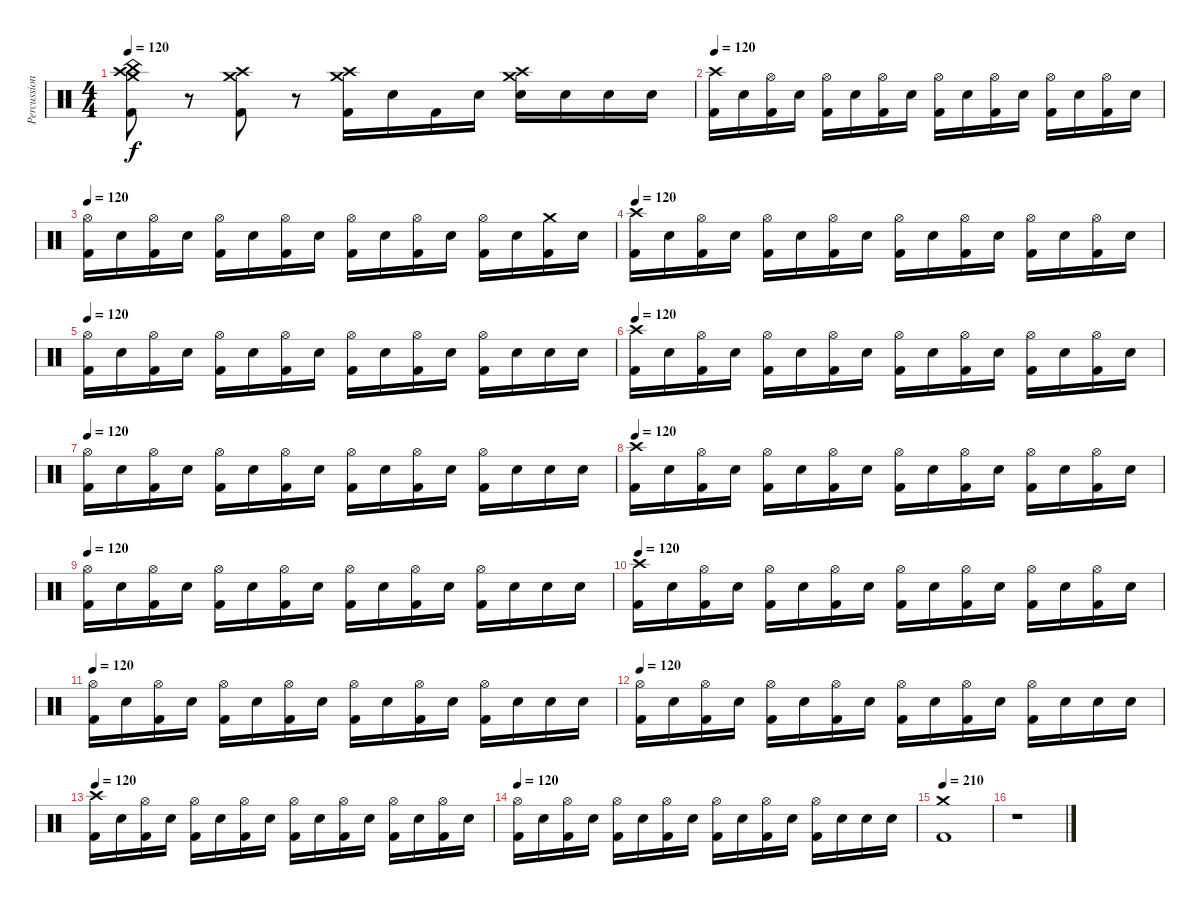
\track ("Percussion" "Percussion") {instrument percussion}
\staff {score}
\articulation defaults
\ts (4 4)
\tempo 120
\clef neutral
\ks c
("Crash high (hit)" "Crash medium (hit)" "China (hit)" "Kick (hit) 2").8{dy f} r.8 ("Crash high (hit)" "Crash medium (hit)" "Kick (hit) 2").8 r.8 ("Crash high (hit)" "Crash medium (hit)" "Kick (hit) 2").16 "Electric Snare (hit)".16 "Kick (hit) 2".16 "Electric Snare (hit)".16 ("Crash high (hit)" "Crash medium (hit)" "Electric Snare (hit)").16 "Electric Snare (hit)".16 "Electric Snare (hit)".16 "Electric Snare (hit)".16 |
\tempo 120
("Crash high (hit)" "Kick (hit) 2").16 "Electric Snare (hit)".16 ("Hi-Hat (open)" "Kick (hit) 2").16 "Electric Snare (hit)".16 ("Hi-Hat (open)" "Kick (hit) 2").16 "Electric Snare (hit)".16 ("Hi-Hat (open)" "Kick (hit) 2").16 "Electric Snare (hit)".16 ("Hi-Hat (open)" "Kick (hit) 2").16 "Electric Snare (hit)".16 ("Hi-Hat (open)" "Kick (hit) 2").16 "Electric Snare (hit)".16 ("Hi-Hat (open)" "Kick (hit) 2").16 "Electric Snare (hit)".16 ("Hi-Hat (open)" "Kick (hit) 2").16 "Electric Snare (hit)".16 |
\tempo 120
("Hi-Hat (open)" "Kick (hit) 2").16 "Electric Snare (hit)".16 ("Hi-Hat (open)" "Kick (hit) 2").16 "Electric Snare (hit)".16 ("Hi-Hat (open)" "Kick (hit) 2").16 "Electric Snare (hit)".16 ("Hi-Hat (open)" "Kick (hit) 2").16 "Electric Snare (hit)".16 ("Hi-Hat (open)" "Kick (hit) 2").16 "Electric Snare (hit)".16 ("Hi-Hat (open)" "Kick (hit) 2").16 "Electric Snare (hit)".16 ("Hi-Hat (open)" "Kick (hit) 2").16 "Electric Snare (hit)".16 ("Crash medium (hit)" "Kick (hit) 2").16 "Electric Snare (hit)".16 |
\tempo 120
("Crash high (hit)" "Kick (hit) 2").16 "Electric Snare (hit)".16 ("Hi-Hat (open)" "Kick (hit) 2").16 "Electric Snare (hit)".16 ("Hi-Hat (open)" "Kick (hit) 2").16 "Electric Snare (hit)".16 ("Hi-Hat (open)" "Kick (hit) 2").16 "Electric Snare (hit)".16 ("Hi-Hat (open)" "Kick (hit) 2").16 "Electric Snare (hit)".16 ("Hi-Hat (open)" "Kick (hit) 2").16 "Electric Snare (hit)".16 ("Hi-Hat (open)" "Kick (hit) 2").16 "Electric Snare (hit)".16 ("Hi-Hat (open)" "Kick (hit) 2").16 "Electric Snare (hit)".16 |
\tempo 120
("Hi-Hat (open)" "Kick (hit) 2").16 "Electric Snare (hit)".16 ("Hi-Hat (open)" "Kick (hit) 2").16 "Electric Snare (hit)".16 ("Hi-Hat (open)" "Kick (hit) 2").16 "Electric Snare (hit)".16 ("Hi-Hat (open)" "Kick (hit) 2").16 "Electric Snare (hit)".16 ("Hi-Hat (open)" "Kick (hit) 2").16 "Electric Snare (hit)".16 ("Hi-Hat (open)" "Kick (hit) 2").16 "Electric Snare (hit)".16 ("Hi-Hat (open)" "Kick (hit) 2").16 "Electric Snare (hit)".16 "Electric Snare (hit)".16 "Electric Snare (hit)".16 |
\tempo 120
("Crash high (hit)" "Kick (hit) 2").16 "Electric Snare (hit)".16 ("Hi-Hat (open)" "Kick (hit) 2").16 "Electric Snare (hit)".16 ("Hi-Hat (open)" "Kick (hit) 2").16 "Electric Snare (hit)".16 ("Hi-Hat (open)" "Kick (hit) 2").16 "Electric Snare (hit)".16 ("Hi-Hat (open)" "Kick (hit) 2").16 "Electric Snare (hit)".16 ("Hi-Hat (open)" "Kick (hit) 2").16 "Electric Snare (hit)".16 ("Hi-Hat (open)" "Kick (hit) 2").16 "Electric Snare (hit)".16 ("Hi-Hat (open)" "Kick (hit) 2").16 "Electric Snare (hit)".16 |
\tempo 120
("Hi-Hat (open)" "Kick (hit) 2").16 "Electric Snare (hit)".16 ("Hi-Hat (open)" "Kick (hit) 2").16 "Electric Snare (hit)".16 ("Hi-Hat (open)" "Kick (hit) 2").16 "Electric Snare (hit)".16 ("Hi-Hat (open)" "Kick (hit) 2").16 "Electric Snare (hit)".16 ("Hi-Hat (open)" "Kick (hit) 2").16 "Electric Snare (hit)".16 ("Hi-Hat (open)" "Kick (hit) 2").16 "Electric Snare (hit)".16 ("Hi-Hat (open)" "Kick (hit) 2").16 "Electric Snare (hit)".16 "Electric Snare (hit)".16 "Electric Snare (hit)".16 |
\tempo 120
("Crash high (hit)" "Kick (hit) 2").16 "Electric Snare (hit)".16 ("Hi-Hat (open)" "Kick (hit) 2").16 "Electric Snare (hit)".16 ("Hi-Hat (open)" "Kick (hit) 2").16 "Electric Snare (hit)".16 ("Hi-Hat (open)" "Kick (hit) 2").16 "Electric Snare (hit)".16 ("Hi-Hat (open)" "Kick (hit) 2").16 "Electric Snare (hit)".16 ("Hi-Hat (open)" "Kick (hit) 2").16 "Electric Snare (hit)".16 ("Hi-Hat (open)" "Kick (hit) 2").16 "Electric Snare (hit)".16 ("Hi-Hat (open)" "Kick (hit) 2").16 "Electric Snare (hit)".16 |
\tempo 120
("Hi-Hat (open)" "Kick (hit) 2").16 "Electric Snare (hit)".16 ("Hi-Hat (open)" "Kick (hit) 2").16 "Electric Snare (hit)".16 ("Hi-Hat (open)" "Kick (hit) 2").16 "Electric Snare (hit)".16 ("Hi-Hat (open)" "Kick (hit) 2").16 "Electric Snare (hit)".16 ("Hi-Hat (open)" "Kick (hit) 2").16 "Electric Snare (hit)".16 ("Hi-Hat (open)" "Kick (hit) 2").16 "Electric Snare (hit)".16 ("Hi-Hat (open)" "Kick (hit) 2").16 "Electric Snare (hit)".16 "Electric Snare (hit)".16 "Electric Snare (hit)".16 |
\tempo 120
("Crash high (hit)" "Kick (hit) 2").16 "Electric Snare (hit)".16 ("Hi-Hat (open)" "Kick (hit) 2").16 "Electric Snare (hit)".16 ("Hi-Hat (open)" "Kick (hit) 2").16 "Electric Snare (hit)".16 ("Hi-Hat (open)" "Kick (hit) 2").16 "Electric Snare (hit)".16 ("Hi-Hat (open)" "Kick (hit) 2").16 "Electric Snare (hit)".16 ("Hi-Hat (open)" "Kick (hit) 2").16 "Electric Snare (hit)".16 ("Hi-Hat (open)" "Kick (hit) 2").16 "Electric Snare (hit)".16 ("Hi-Hat (open)" "Kick (hit) 2").16 "Electric Snare (hit)".16 |
\tempo 120
("Hi-Hat (open)" "Kick (hit) 2").16 "Electric Snare (hit)".16 ("Hi-Hat (open)" "Kick (hit) 2").16 "Electric Snare (hit)".16 ("Hi-Hat (open)" "Kick (hit) 2").16 "Electric Snare (hit)".16 ("Hi-Hat (open)" "Kick (hit) 2").16 "Electric Snare (hit)".16 ("Hi-Hat (open)" "Kick (hit) 2").16 "Electric Snare (hit)".16 ("Hi-Hat (open)" "Kick (hit) 2").16 "Electric Snare (hit)".16 ("Hi-Hat (open)" "Kick (hit) 2").16 "Electric Snare (hit)".16 "Electric Snare (hit)".16 "Electric Snare (hit)".16 |
\tempo 120
("Hi-Hat (open)" "Kick (hit) 2").16 "Electric Snare (hit)".16 ("Hi-Hat (open)" "Kick (hit) 2").16 "Electric Snare (hit)".16 ("Hi-Hat (open)" "Kick (hit) 2").16 "Electric Snare (hit)".16 ("Hi-Hat (open)" "Kick (hit) 2").16 "Electric Snare (hit)".16 ("Hi-Hat (open)" "Kick (hit) 2").16 "Electric Snare (hit)".16 ("Hi-Hat (open)" "Kick (hit) 2").16 "Electric Snare (hit)".16 ("Hi-Hat (open)" "Kick (hit) 2").16 "Electric Snare (hit)".16 "Electric Snare (hit)".16 "Electric Snare (hit)".16 |
\tempo 120
("Crash high (hit)" "Kick (hit) 2").16 "Electric Snare (hit)".16 ("Hi-Hat (open)" "Kick (hit) 2").16 "Electric Snare (hit)".16 ("Hi-Hat (open)" "Kick (hit) 2").16 "Electric Snare (hit)".16 ("Hi-Hat (open)" "Kick (hit) 2").16 "Electric Snare (hit)".16 ("Hi-Hat (open)" "Kick (hit) 2").16 "Electric Snare (hit)".16 ("Hi-Hat (open)" "Kick (hit) 2").16 "Electric Snare (hit)".16 ("Hi-Hat (open)" "Kick (hit) 2").16 "Electric Snare (hit)".16 ("Hi-Hat (open)" "Kick (hit) 2").16 "Electric Snare (hit)".16 |
\tempo 120
("Hi-Hat (open)" "Kick (hit) 2").16 "Electric Snare (hit)".16 ("Hi-Hat (open)" "Kick (hit) 2").16 "Electric Snare (hit)".16 ("Hi-Hat (open)" "Kick (hit) 2").16 "Electric Snare (hit)".16 ("Hi-Hat (open)" "Kick (hit) 2").16 "Electric Snare (hit)".16 ("Hi-Hat (open)" "Kick (hit) 2").16 "Electric Snare (hit)".16 ("Hi-Hat (open)" "Kick (hit) 2").16 "Electric Snare (hit)".16 ("Hi-Hat (open)" "Kick (hit) 2").16 "Electric Snare (hit)".16 "Electric Snare (hit)".16 "Electric Snare (hit)".16 |
\tempo 210
("Crash medium (hit)" "Kick (hit) 2").1 |
r.1
